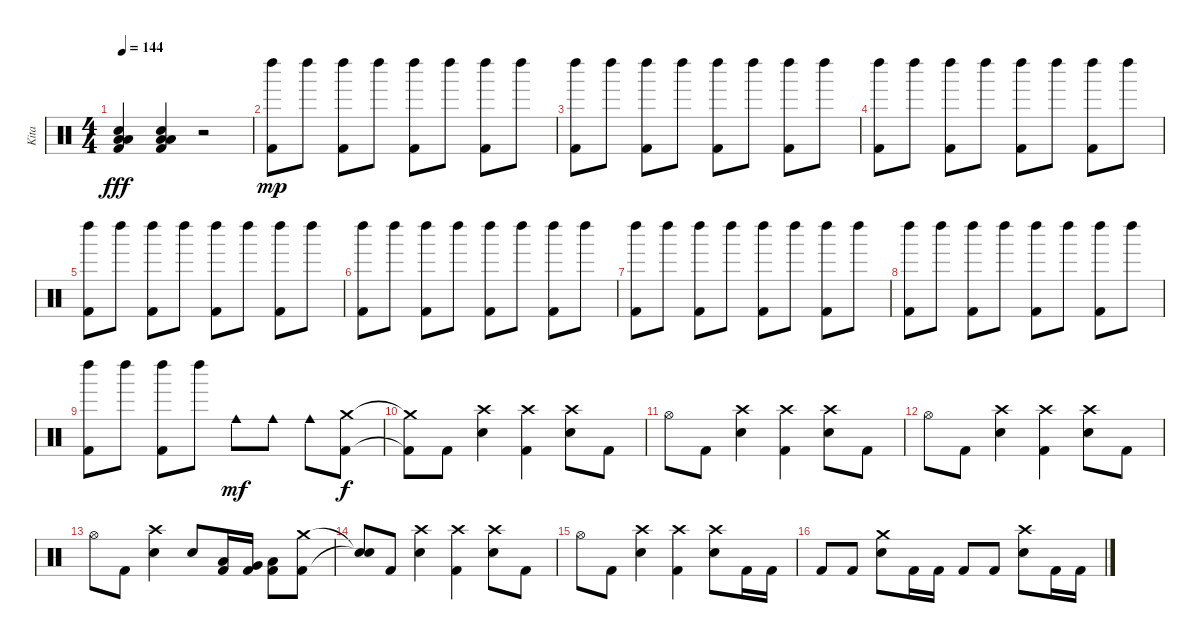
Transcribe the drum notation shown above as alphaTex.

\track ("Kita" "Kita") {instrument percussion}
\staff {score}
\articulation defaults
\ts (4 4)
\tempo 144
\clef neutral
\ks c
("Kick (hit) 2" "Low Floor Tom (hit)" "Low Floor Tom (hit)" "Snare (hit) 2").4{dy fff} ("Kick (hit) 2" "Low Floor Tom (hit)" "Low Floor Tom (hit)" "Snare (hit) 2").4 r.2 |
("Kick (hit) 2" "Left Maraca (hit)").8{dy mp} "Left Maraca (hit)".8 ("Kick (hit) 2" "Left Maraca (hit)").8 "Left Maraca (hit)".8 ("Kick (hit) 2" "Left Maraca (hit)").8 "Left Maraca (hit)".8 ("Kick (hit) 2" "Left Maraca (hit)").8 "Left Maraca (hit)".8 |
("Kick (hit) 2" "Left Maraca (hit)").8 "Left Maraca (hit)".8 ("Kick (hit) 2" "Left Maraca (hit)").8 "Left Maraca (hit)".8 ("Kick (hit) 2" "Left Maraca (hit)").8 "Left Maraca (hit)".8 ("Kick (hit) 2" "Left Maraca (hit)").8 "Left Maraca (hit)".8 |
("Kick (hit) 2" "Left Maraca (hit)").8 "Left Maraca (hit)".8 ("Kick (hit) 2" "Left Maraca (hit)").8 "Left Maraca (hit)".8 ("Kick (hit) 2" "Left Maraca (hit)").8 "Left Maraca (hit)".8 ("Kick (hit) 2" "Left Maraca (hit)").8 "Left Maraca (hit)".8 |
("Kick (hit) 2" "Left Maraca (hit)").8 "Left Maraca (hit)".8 ("Kick (hit) 2" "Left Maraca (hit)").8 "Left Maraca (hit)".8 ("Kick (hit) 2" "Left Maraca (hit)").8 "Left Maraca (hit)".8 ("Kick (hit) 2" "Left Maraca (hit)").8 "Left Maraca (hit)".8 |
("Kick (hit) 2" "Left Maraca (hit)").8 "Left Maraca (hit)".8 ("Kick (hit) 2" "Left Maraca (hit)").8 "Left Maraca (hit)".8 ("Kick (hit) 2" "Left Maraca (hit)").8 "Left Maraca (hit)".8 ("Kick (hit) 2" "Left Maraca (hit)").8 "Left Maraca (hit)".8 |
("Kick (hit) 2" "Left Maraca (hit)").8 "Left Maraca (hit)".8 ("Kick (hit) 2" "Left Maraca (hit)").8 "Left Maraca (hit)".8 ("Kick (hit) 2" "Left Maraca (hit)").8 "Left Maraca (hit)".8 ("Kick (hit) 2" "Left Maraca (hit)").8 "Left Maraca (hit)".8 |
("Kick (hit) 2" "Left Maraca (hit)").8 "Left Maraca (hit)".8 ("Kick (hit) 2" "Left Maraca (hit)").8 "Left Maraca (hit)".8 ("Kick (hit) 2" "Left Maraca (hit)").8 "Left Maraca (hit)".8 ("Kick (hit) 2" "Left Maraca (hit)").8 "Left Maraca (hit)".8 |
("Kick (hit) 2" "Left Maraca (hit)").8 "Left Maraca (hit)".8 ("Kick (hit) 2" "Left Maraca (hit)").8 "Left Maraca (hit)".8 "Cowbell medium (hit)".8{dy mf} "Cowbell medium (hit)".8 "Cowbell medium (hit)".8 ("Kick (hit) 2" "Crash medium (hit)").8{dy f} |
("Kick (hit) 2"{t} "Crash medium (hit)"{t}).8 "Kick (hit) 2".8 ("Crash high (hit)" "Snare (hit) 2").4 ("Kick (hit) 2" "Crash high (hit)").4 ("Crash high (hit)" "Snare (hit) 2").8 "Kick (hit) 2".8 |
"Hi-Hat (open)".8 "Kick (hit) 2".8 ("Crash high (hit)" "Snare (hit) 2").4 ("Kick (hit) 2" "Crash high (hit)").4 ("Crash high (hit)" "Snare (hit) 2").8 "Kick (hit) 2".8 |
"Hi-Hat (open)".8 "Kick (hit) 2".8 ("Crash high (hit)" "Snare (hit) 2").4 ("Kick (hit) 2" "Crash high (hit)").4 ("Crash high (hit)" "Snare (hit) 2").8 "Kick (hit) 2".8 |
"Hi-Hat (open)".8 "Kick (hit) 2".8 ("Crash high (hit)" "Snare (hit) 2").4 "Snare (hit) 2".8 ("Kick (hit) 2" "Low Tom (hit)").16 ("Kick (hit) 2" "Very Low Tom (hit)").16 ("Kick (hit) 2" "Low Floor Tom (hit)").8 ("Kick (hit) 2" "Crash medium (hit)").8 |
("Snare (hit)"{t} "Snare (hit)"{t}).8 "Kick (hit) 2".8 ("Crash high (hit)" "Snare (hit) 2").4 ("Kick (hit) 2" "Crash high (hit)").4 ("Crash high (hit)" "Snare (hit) 2").8 "Kick (hit) 2".8 |
"Hi-Hat (open)".8 "Kick (hit) 2".8 ("Crash high (hit)" "Snare (hit) 2").4 ("Kick (hit) 2" "Crash high (hit)").4 ("Crash high (hit)" "Snare (hit) 2").8 "Kick (hit) 2".16 "Kick (hit) 2".16 |
"Kick (hit) 2".8 "Kick (hit) 2".8 ("Crash medium (hit)" "Snare (hit) 2").8 "Kick (hit) 2".16 "Kick (hit) 2".16 "Kick (hit) 2".8 "Kick (hit) 2".8 ("Crash high (hit)" "Snare (hit) 2").8 "Kick (hit) 2".16 "Kick (hit) 2".16
